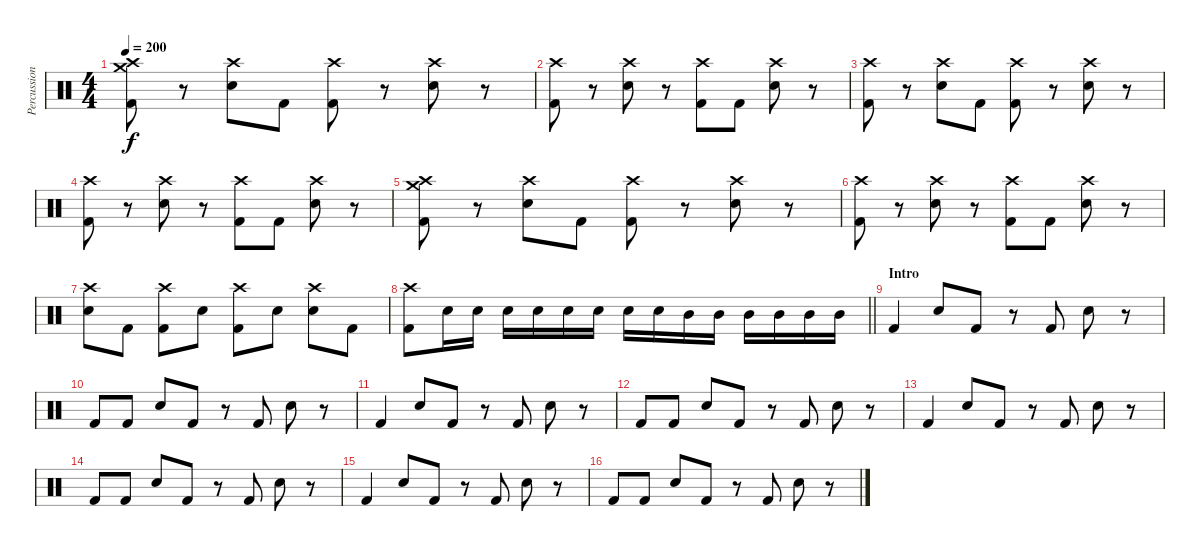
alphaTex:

\track ("Percussion" "Percussion") {instrument percussion}
\staff {score}
\articulation defaults
\ts (4 4)
\tempo 200
\clef neutral
\ks c
("Crash high (hit)" "Crash medium (hit)" "Kick (hit) 2").8{dy f} r.8 ("Crash high (hit)" "Snare (hit) 2").8 "Kick (hit) 2".8 ("Crash high (hit)" "Kick (hit) 2").8 r.8 ("Crash high (hit)" "Snare (hit) 2").8 r.8 |
("Crash high (hit)" "Kick (hit) 2").8 r.8 ("Crash high (hit)" "Snare (hit) 2").8 r.8 ("Crash high (hit)" "Kick (hit) 2").8 "Kick (hit) 2".8 ("Crash high (hit)" "Snare (hit) 2").8 r.8 |
("Crash high (hit)" "Kick (hit) 2").8 r.8 ("Crash high (hit)" "Snare (hit) 2").8 "Kick (hit) 2".8 ("Crash high (hit)" "Kick (hit) 2").8 r.8 ("Crash high (hit)" "Snare (hit) 2").8 r.8 |
("Crash high (hit)" "Kick (hit) 2").8 r.8 ("Crash high (hit)" "Snare (hit) 2").8 r.8 ("Crash high (hit)" "Kick (hit) 2").8 "Kick (hit) 2".8 ("Crash high (hit)" "Snare (hit) 2").8 r.8 |
("Crash high (hit)" "Crash medium (hit)" "Kick (hit) 2").8 r.8 ("Crash high (hit)" "Snare (hit) 2").8 "Kick (hit) 2".8 ("Crash high (hit)" "Kick (hit) 2").8 r.8 ("Crash high (hit)" "Snare (hit) 2").8 r.8 |
("Crash high (hit)" "Kick (hit) 2").8 r.8 ("Crash high (hit)" "Snare (hit) 2").8 r.8 ("Crash high (hit)" "Kick (hit) 2").8 "Kick (hit) 2".8 ("Crash high (hit)" "Snare (hit) 2").8 r.8 |
("Crash high (hit)" "Snare (hit) 2").8 "Kick (hit) 2".8 ("Crash high (hit)" "Kick (hit) 2").8 "Snare (hit) 2".8 ("Crash high (hit)" "Kick (hit) 2").8 "Snare (hit) 2".8 ("Crash high (hit)" "Snare (hit) 2").8 "Kick (hit) 2".8 |
\barLineRight lightlight
("Crash high (hit)" "Kick (hit) 2").8 "Snare (hit) 2".16 "Snare (hit) 2".16 "Snare (hit) 2".16 "Snare (hit) 2".16 "Snare (hit) 2".16 "Snare (hit) 2".16 "Snare (hit) 2".16 "Snare (hit) 2".16 "Mid Tom (hit)".16 "Mid Tom (hit)".16 "Mid Tom (hit)".16 "Mid Tom (hit)".16 "Mid Tom (hit)".16 "Mid Tom (hit)".16 |
\section ("" "Intro")
"Kick (hit) 2".4 "Snare (hit) 2".8 "Kick (hit) 2".8 r.8 "Kick (hit) 2".8 "Snare (hit) 2".8 r.8 |
"Kick (hit) 2".8 "Kick (hit) 2".8 "Snare (hit) 2".8 "Kick (hit) 2".8 r.8 "Kick (hit) 2".8 "Snare (hit) 2".8 r.8 |
"Kick (hit) 2".4 "Snare (hit) 2".8 "Kick (hit) 2".8 r.8 "Kick (hit) 2".8 "Snare (hit) 2".8 r.8 |
"Kick (hit) 2".8 "Kick (hit) 2".8 "Snare (hit) 2".8 "Kick (hit) 2".8 r.8 "Kick (hit) 2".8 "Snare (hit) 2".8 r.8 |
"Kick (hit) 2".4 "Snare (hit) 2".8 "Kick (hit) 2".8 r.8 "Kick (hit) 2".8 "Snare (hit) 2".8 r.8 |
"Kick (hit) 2".8 "Kick (hit) 2".8 "Snare (hit) 2".8 "Kick (hit) 2".8 r.8 "Kick (hit) 2".8 "Snare (hit) 2".8 r.8 |
"Kick (hit) 2".4 "Snare (hit) 2".8 "Kick (hit) 2".8 r.8 "Kick (hit) 2".8 "Snare (hit) 2".8 r.8 |
"Kick (hit) 2".8 "Kick (hit) 2".8 "Snare (hit) 2".8 "Kick (hit) 2".8 r.8 "Kick (hit) 2".8 "Snare (hit) 2".8 r.8
